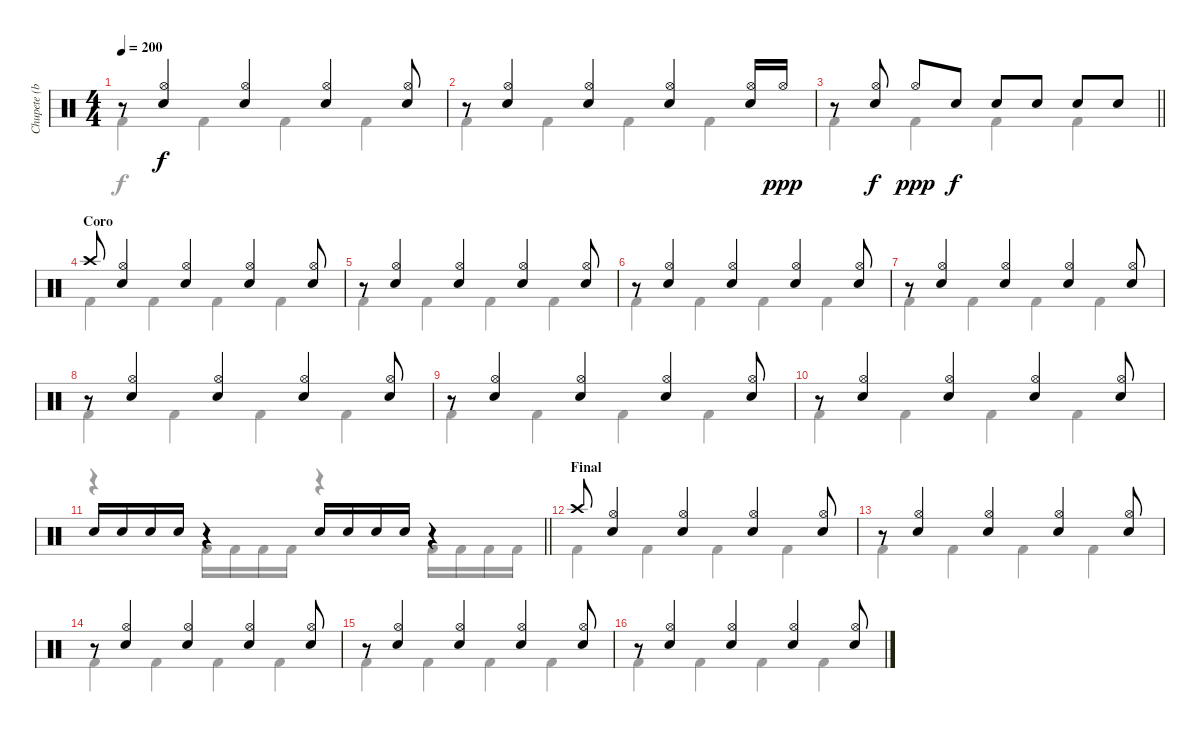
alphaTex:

\track ("Chupete (batería)" "Chupete (b") {instrument percussion}
\staff {score}
\articulation defaults
\voice
\ts (4 4)
\tempo 200
\clef neutral
\ks c
r.8{dy f} ("Hi-Hat (open)" "Electric Snare (hit)").4 ("Hi-Hat (open)" "Electric Snare (hit)").4 ("Hi-Hat (open)" "Electric Snare (hit)").4 ("Hi-Hat (open)" "Electric Snare (hit)").8 |
r.8 ("Hi-Hat (open)" "Electric Snare (hit)").4 ("Hi-Hat (open)" "Electric Snare (hit)").4 ("Hi-Hat (open)" "Electric Snare (hit)").4 ("Hi-Hat (open)" "Electric Snare (hit)").16 "Hi-Hat (open)".16{dy ppp} |
\barLineRight lightlight
r.8 ("Hi-Hat (open)" "Electric Snare (hit)").8{dy f} "Hi-Hat (open)".8{dy ppp} "Electric Snare (hit)".8{dy f} "Electric Snare (hit)".8 "Electric Snare (hit)".8 "Electric Snare (hit)".8 "Electric Snare (hit)".8 |
\section ("" "Coro")
"Crash high (hit)".8 ("Hi-Hat (open)" "Electric Snare (hit)").4 ("Hi-Hat (open)" "Electric Snare (hit)").4 ("Hi-Hat (open)" "Electric Snare (hit)").4 ("Hi-Hat (open)" "Electric Snare (hit)").8 |
r.8 ("Hi-Hat (open)" "Electric Snare (hit)").4 ("Hi-Hat (open)" "Electric Snare (hit)").4 ("Hi-Hat (open)" "Electric Snare (hit)").4 ("Hi-Hat (open)" "Electric Snare (hit)").8 |
r.8 ("Hi-Hat (open)" "Electric Snare (hit)").4 ("Hi-Hat (open)" "Electric Snare (hit)").4 ("Hi-Hat (open)" "Electric Snare (hit)").4 ("Hi-Hat (open)" "Electric Snare (hit)").8 |
r.8 ("Hi-Hat (open)" "Electric Snare (hit)").4 ("Hi-Hat (open)" "Electric Snare (hit)").4 ("Hi-Hat (open)" "Electric Snare (hit)").4 ("Hi-Hat (open)" "Electric Snare (hit)").8 |
r.8 ("Hi-Hat (open)" "Electric Snare (hit)").4 ("Hi-Hat (open)" "Electric Snare (hit)").4 ("Hi-Hat (open)" "Electric Snare (hit)").4 ("Hi-Hat (open)" "Electric Snare (hit)").8 |
r.8 ("Hi-Hat (open)" "Electric Snare (hit)").4 ("Hi-Hat (open)" "Electric Snare (hit)").4 ("Hi-Hat (open)" "Electric Snare (hit)").4 ("Hi-Hat (open)" "Electric Snare (hit)").8 |
r.8 ("Hi-Hat (open)" "Electric Snare (hit)").4 ("Hi-Hat (open)" "Electric Snare (hit)").4 ("Hi-Hat (open)" "Electric Snare (hit)").4 ("Hi-Hat (open)" "Electric Snare (hit)").8 |
\barLineRight lightlight "Electric Snare (hit)".16 "Electric Snare (hit)".16 "Electric Snare (hit)".16 "Electric Snare (hit)".16
r.4 "Electric Snare (hit)".16 "Electric Snare (hit)".16 "Electric Snare (hit)".16 "Electric Snare (hit)".16 r.4 |
\section ("" "Final")
"Crash high (hit)".8 ("Hi-Hat (open)" "Electric Snare (hit)").4 ("Hi-Hat (open)" "Electric Snare (hit)").4 ("Hi-Hat (open)" "Electric Snare (hit)").4 ("Hi-Hat (open)" "Electric Snare (hit)").8 |
r.8 ("Hi-Hat (open)" "Electric Snare (hit)").4 ("Hi-Hat (open)" "Electric Snare (hit)").4 ("Hi-Hat (open)" "Electric Snare (hit)").4 ("Hi-Hat (open)" "Electric Snare (hit)").8 |
r.8 ("Hi-Hat (open)" "Electric Snare (hit)").4 ("Hi-Hat (open)" "Electric Snare (hit)").4 ("Hi-Hat (open)" "Electric Snare (hit)").4 ("Hi-Hat (open)" "Electric Snare (hit)").8 |
r.8 ("Hi-Hat (open)" "Electric Snare (hit)").4 ("Hi-Hat (open)" "Electric Snare (hit)").4 ("Hi-Hat (open)" "Electric Snare (hit)").4 ("Hi-Hat (open)" "Electric Snare (hit)").8 |
r.8 ("Hi-Hat (open)" "Electric Snare (hit)").4 ("Hi-Hat (open)" "Electric Snare (hit)").4 ("Hi-Hat (open)" "Electric Snare (hit)").4 ("Hi-Hat (open)" "Electric Snare (hit)").8
\voice
\clef neutral
\ottava regular
\simile none
\ks c "Kick (hit) 2".4{dy f} "Kick (hit) 2".4 "Kick (hit) 2".4 "Kick (hit) 2".4
|
"Kick (hit) 2".4 "Kick (hit) 2".4 "Kick (hit) 2".4 "Kick (hit) 2".4 |
\barLineRight lightlight "Kick (hit) 2".4 "Kick (hit) 2".4 "Kick (hit) 2".4 "Kick (hit) 2".4
|
"Kick (hit) 2".4 "Kick (hit) 2".4 "Kick (hit) 2".4 "Kick (hit) 2".4 |
"Kick (hit) 2".4 "Kick (hit) 2".4 "Kick (hit) 2".4 "Kick (hit) 2".4 |
"Kick (hit) 2".4 "Kick (hit) 2".4 "Kick (hit) 2".4 "Kick (hit) 2".4 |
"Kick (hit) 2".4 "Kick (hit) 2".4 "Kick (hit) 2".4 "Kick (hit) 2".4 |
"Kick (hit) 2".4 "Kick (hit) 2".4 "Kick (hit) 2".4 "Kick (hit) 2".4 |
"Kick (hit) 2".4 "Kick (hit) 2".4 "Kick (hit) 2".4 "Kick (hit) 2".4 |
"Kick (hit) 2".4 "Kick (hit) 2".4 "Kick (hit) 2".4 "Kick (hit) 2".4 |
\barLineRight lightlight
r.4 "Kick (hit) 2".16 "Kick (hit) 2".16 "Kick (hit) 2".16 "Kick (hit) 2".16 r.4 "Kick (hit) 2".16 "Kick (hit) 2".16 "Kick (hit) 2".16 "Kick (hit) 2".16 |
"Kick (hit) 2".4 "Kick (hit) 2".4 "Kick (hit) 2".4 "Kick (hit) 2".4 |
"Kick (hit) 2".4 "Kick (hit) 2".4 "Kick (hit) 2".4 "Kick (hit) 2".4 |
"Kick (hit) 2".4 "Kick (hit) 2".4 "Kick (hit) 2".4 "Kick (hit) 2".4 |
"Kick (hit) 2".4 "Kick (hit) 2".4 "Kick (hit) 2".4 "Kick (hit) 2".4 |
"Kick (hit) 2".4 "Kick (hit) 2".4 "Kick (hit) 2".4 "Kick (hit) 2".4
